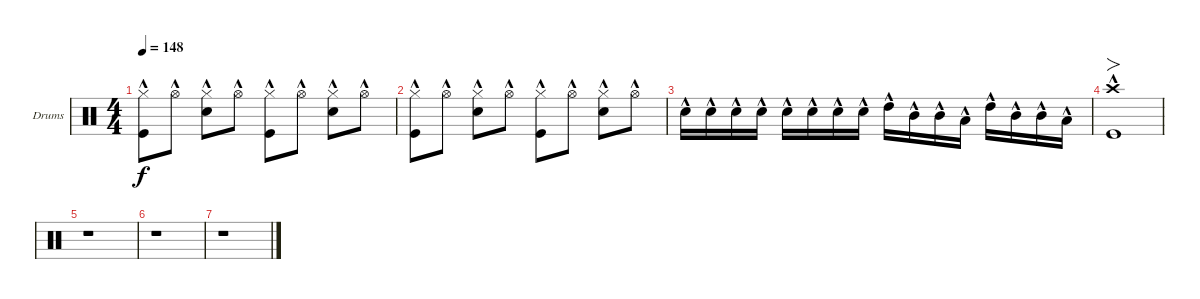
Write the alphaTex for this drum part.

\bracketExtendMode groupsimilarinstruments
\firstSystemTrackNameOrientation horizontal
\otherSystemsTrackNameOrientation horizontal
\track ("Drumkit" "Drums") {instrument percussion}
\staff {score}
\articulation defaults
\ts (4 4)
\tempo 148
\clef neutral
\ks c
("Kick (hit)"{hac} "Hi-Hat (closed)"{hac}).8{dy f} "Hi-Hat (open)"{hac}.8 ("Snare (hit) 2"{hac} "Hi-Hat (closed)"{hac}).8 "Hi-Hat (open)"{hac}.8 ("Kick (hit)"{hac} "Hi-Hat (closed)"{hac}).8 "Hi-Hat (open)"{hac}.8 ("Snare (hit) 2"{hac} "Hi-Hat (closed)"{hac}).8 "Hi-Hat (open)"{hac}.8 |
("Kick (hit)"{hac} "Hi-Hat (closed)"{hac}).8 "Hi-Hat (open)"{hac}.8 ("Snare (hit) 2"{hac} "Hi-Hat (closed)"{hac}).8 "Hi-Hat (open)"{hac}.8 ("Kick (hit)"{hac} "Hi-Hat (closed)"{hac}).8 "Hi-Hat (open)"{hac}.8 ("Snare (hit) 2"{hac} "Hi-Hat (closed)"{hac}).8 "Hi-Hat (open)"{hac}.8 |
"Snare (hit) 2"{hac}.16 "Snare (hit) 2"{hac}.16 "Snare (hit) 2"{hac}.16 "Snare (hit) 2"{hac}.16 "Snare (hit) 2"{hac}.16 "Snare (hit) 2"{hac}.16 "Snare (hit) 2"{hac}.16 "Snare (hit) 2"{hac}.16 "High Tom (hit)"{hac}.16 "Mid Tom (hit)"{hac}.16 "Mid Tom (hit)"{hac}.16 "Low Tom (hit)"{hac}.16 "High Tom (hit)"{hac}.16 "Mid Tom (hit)"{hac}.16 "Mid Tom (hit)"{hac}.16 "Low Tom (hit)"{hac}.16 |
("Kick (hit)"{hac} "Crash high (hit)"{hac}).1{fo} |
r.1 |
r.1 |
r.1
